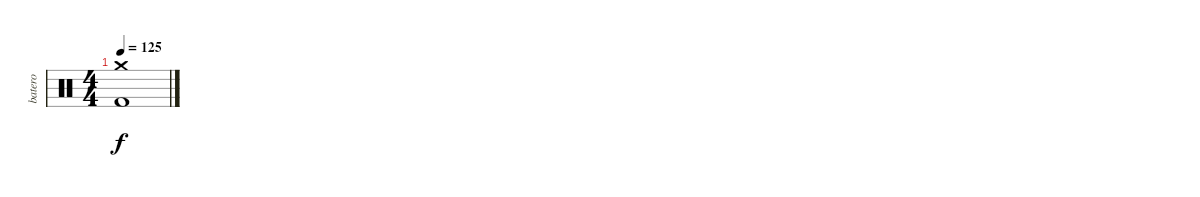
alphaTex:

\track ("batero" "batero") {instrument percussion}
\staff {score}
\articulation defaults
\ts (4 4)
\tempo 125
\clef neutral
\ks c
("Crash medium (hit)"{t} "Kick (hit) 2"{t}).1{dy f}
